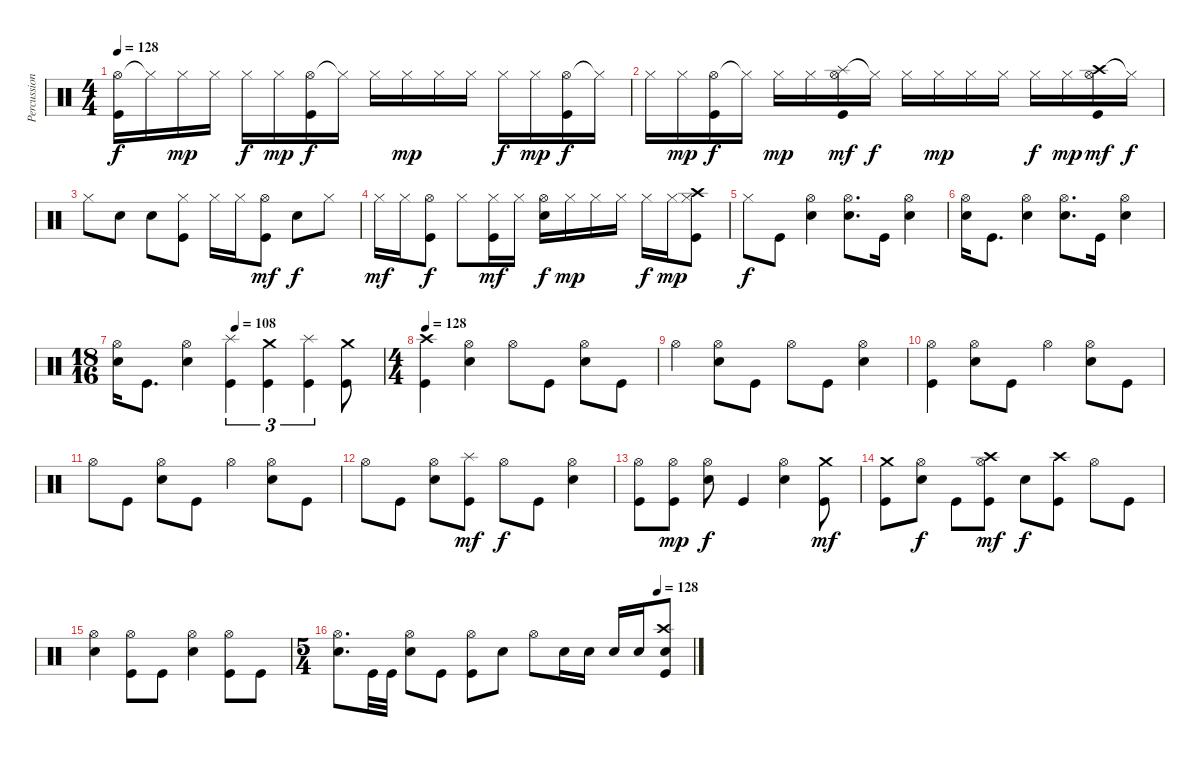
\track ("Percussioni" "Percussion") {instrument percussion}
\staff {score}
\articulation defaults
\ts (4 4)
\tempo 128
\clef neutral
\ks c
("Hi-Hat (open)" "Kick (hit)").16{dy f} "Hi-Hat (closed)"{t}.16 "Hi-Hat (closed)".16{dy mp} "Hi-Hat (closed)".16 "Hi-Hat (closed)".16{dy f} "Hi-Hat (closed)".16{dy mp} ("Hi-Hat (open)" "Kick (hit)").16{dy f} "Hi-Hat (closed)"{t}.16 "Hi-Hat (closed)".16 "Hi-Hat (closed)".16{dy mp} "Hi-Hat (closed)".16 "Hi-Hat (closed)".16 "Hi-Hat (closed)".16{dy f} "Hi-Hat (closed)".16{dy mp} ("Hi-Hat (open)" "Kick (hit)").16{dy f} "Hi-Hat (closed)"{t}.16 |
"Hi-Hat (closed)".16 "Hi-Hat (closed)".16{dy mp} ("Hi-Hat (open)" "Kick (hit)").16{dy f} "Hi-Hat (closed)"{t}.16 "Hi-Hat (closed)".16{dy mp} "Hi-Hat (closed)".16 ("Splash (hit)" "Hi-Hat (open)" "Kick (hit)").16{dy mf} "Hi-Hat (closed)"{t}.16{dy f} "Hi-Hat (closed)".16 "Hi-Hat (closed)".16{dy mp} "Hi-Hat (closed)".16 "Hi-Hat (closed)".16 "Hi-Hat (closed)".16{dy f} "Hi-Hat (closed)".16{dy mp} ("Crash high (hit)" "Hi-Hat (open)" "Kick (hit)").16{dy mf} "Hi-Hat (closed)"{t}.16{dy f} |
"Hi-Hat (closed)".8 "Snare (hit) 2".8 "Snare (hit) 2".8 ("Hi-Hat (closed)" "Kick (hit)").8 "Hi-Hat (closed)".16 "Hi-Hat (closed)".16 ("Hi-Hat (open)" "Kick (hit)").8{dy mf} "Snare (hit) 2".8{dy f} "Hi-Hat (closed)".8 |
"Hi-Hat (closed)".16{dy mf} "Hi-Hat (closed)".16 ("Hi-Hat (open)" "Kick (hit)").8{dy f} "Hi-Hat (closed)".8 ("Hi-Hat (closed)" "Kick (hit)").16{dy mf} "Hi-Hat (closed)".16 ("Hi-Hat (open)" "Snare (hit) 2").16{dy f} "Hi-Hat (closed)".16{dy mp} "Hi-Hat (closed)".16 "Hi-Hat (closed)".16 "Hi-Hat (closed)".16{dy f} "Hi-Hat (closed)".16{dy mp} ("Crash high (hit)" "Hi-Hat (closed)" "Kick (hit)").8 |
"Hi-Hat (closed)".8{dy f} "Kick (hit)".8 ("Hi-Hat (open)" "Snare (hit) 2").4 ("Hi-Hat (open)" "Snare (hit) 2").8{d} "Kick (hit)".16 ("Hi-Hat (open)" "Snare (hit) 2").4 |
("Hi-Hat (open)" "Snare (hit) 2").16 "Kick (hit)".8{d} ("Hi-Hat (open)" "Snare (hit) 2").4 ("Hi-Hat (open)" "Snare (hit) 2").8{d} "Kick (hit)".16 ("Hi-Hat (open)" "Snare (hit) 2").4 |
\ts (18 16)
\tempo (108 0.4444444444444444)
("Hi-Hat (open)" "Snare (hit) 2").16 "Kick (hit)".8{d} ("Hi-Hat (open)" "Snare (hit) 2").4 ("Splash (hit)" "Kick (hit)").4{tu (3 2)} ("Crash medium (hit)" "Kick (hit)").4{tu (3 2)} ("Splash (hit)" "Kick (hit)").4{tu (3 2)} ("Crash medium (hit)" "Kick (hit)").8 |
\ts (4 4)
\tempo 128
("Crash high (hit)" "Kick (hit)").4 ("Hi-Hat (open)" "Snare (hit) 2").4 "Hi-Hat (open)".8 "Kick (hit)".8 ("Hi-Hat (open)" "Snare (hit) 2").8 "Kick (hit)".8 |
"Hi-Hat (open)".4 ("Hi-Hat (open)" "Snare (hit) 2").8 "Kick (hit)".8 "Hi-Hat (open)".8 "Kick (hit)".8 ("Hi-Hat (open)" "Snare (hit) 2").4 |
("Hi-Hat (open)" "Kick (hit)").4 ("Hi-Hat (open)" "Snare (hit) 2").8 "Kick (hit)".8 "Hi-Hat (open)".4 ("Hi-Hat (open)" "Snare (hit) 2").8 "Kick (hit)".8 |
"Hi-Hat (open)".8 "Kick (hit)".8 ("Hi-Hat (open)" "Snare (hit) 2").8 "Kick (hit)".8 "Hi-Hat (open)".4 ("Hi-Hat (open)" "Snare (hit) 2").8 "Kick (hit)".8 |
"Hi-Hat (open)".8 "Kick (hit)".8 ("Hi-Hat (open)" "Snare (hit) 2").8 ("Splash (hit)" "Kick (hit)").8{dy mf} "Hi-Hat (open)".8{dy f} "Kick (hit)".8 ("Hi-Hat (open)" "Snare (hit) 2").4 |
("Hi-Hat (open)" "Kick (hit)").8 ("Hi-Hat (open)" "Kick (hit)").8{dy mp} ("Hi-Hat (open)" "Snare (hit) 2").8{dy f} "Kick (hit)".4 ("Hi-Hat (open)" "Snare (hit) 2").4 ("Crash medium (hit)" "Kick (hit)").8{dy mf} |
("Crash medium (hit)" "Kick (hit)").8 ("Hi-Hat (open)" "Snare (hit) 2").8{dy f} "Kick (hit)".8 ("Crash high (hit)" "Hi-Hat (open)" "Kick (hit)").8{dy mf} "Snare (hit) 2".8{dy f} ("Crash high (hit)" "Kick (hit)").8 "Hi-Hat (open)".8 "Kick (hit)".8 |
("Hi-Hat (open)" "Snare (hit) 2").4 ("Hi-Hat (open)" "Kick (hit)").8 "Kick (hit)".8 ("Hi-Hat (open)" "Snare (hit) 2").4 ("Hi-Hat (open)" "Kick (hit)").8 "Kick (hit)".8 |
\ts (5 4)
\tempo (128 0.9)
("Hi-Hat (open)" "Snare (hit) 2").8{d} "Kick (hit)".32 "Kick (hit)".32 ("Hi-Hat (open)" "Snare (hit) 2").8 "Kick (hit)".8 ("Hi-Hat (open)" "Kick (hit)").8 "Snare (hit) 2".8 "Hi-Hat (open)".8 "Snare (hit) 2".16 "Snare (hit) 2".16 "Snare (hit) 2".16 "Snare (hit) 2".16 ("Crash high (hit)" "Snare (hit) 2" "Kick (hit)").8
